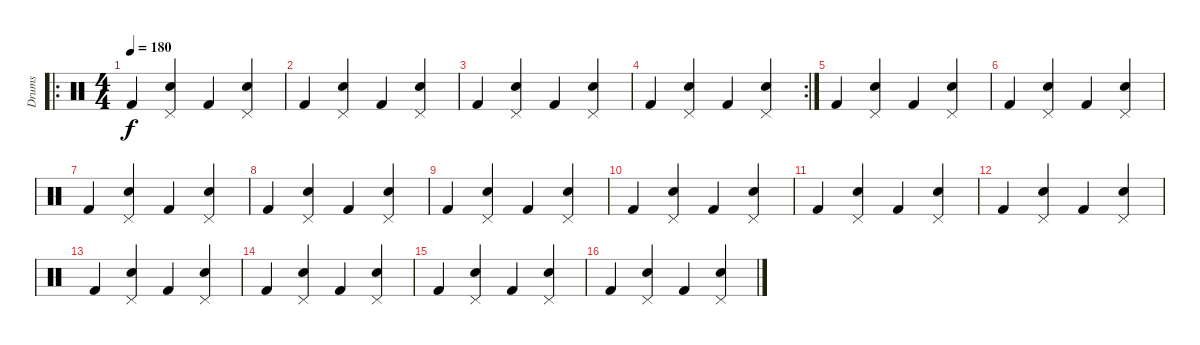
\track ("Drums" "Drums") {instrument percussion}
\staff {score}
\articulation defaults
\ro
\ts (4 4)
\tempo 180
\clef neutral
\ks c "Kick (hit) 2".4{dy f}
("Pedal Hi-Hat (hit)" "Electric Snare (hit)").4 "Kick (hit) 2".4 ("Pedal Hi-Hat (hit)" "Electric Snare (hit)").4 |
"Kick (hit) 2".4 ("Pedal Hi-Hat (hit)" "Electric Snare (hit)").4 "Kick (hit) 2".4 ("Pedal Hi-Hat (hit)" "Electric Snare (hit)").4 |
"Kick (hit) 2".4 ("Pedal Hi-Hat (hit)" "Electric Snare (hit)").4 "Kick (hit) 2".4 ("Pedal Hi-Hat (hit)" "Electric Snare (hit)").4 |
\rc 2 "Kick (hit) 2".4
("Pedal Hi-Hat (hit)" "Electric Snare (hit)").4 "Kick (hit) 2".4 ("Pedal Hi-Hat (hit)" "Electric Snare (hit)").4 |
"Kick (hit) 2".4 ("Pedal Hi-Hat (hit)" "Electric Snare (hit)").4 "Kick (hit) 2".4 ("Pedal Hi-Hat (hit)" "Electric Snare (hit)").4 |
"Kick (hit) 2".4 ("Pedal Hi-Hat (hit)" "Electric Snare (hit)").4 "Kick (hit) 2".4 ("Pedal Hi-Hat (hit)" "Electric Snare (hit)").4 |
"Kick (hit) 2".4 ("Pedal Hi-Hat (hit)" "Electric Snare (hit)").4 "Kick (hit) 2".4 ("Pedal Hi-Hat (hit)" "Electric Snare (hit)").4 |
"Kick (hit) 2".4 ("Pedal Hi-Hat (hit)" "Electric Snare (hit)").4 "Kick (hit) 2".4 ("Pedal Hi-Hat (hit)" "Electric Snare (hit)").4 |
"Kick (hit) 2".4 ("Pedal Hi-Hat (hit)" "Electric Snare (hit)").4 "Kick (hit) 2".4 ("Pedal Hi-Hat (hit)" "Electric Snare (hit)").4 |
"Kick (hit) 2".4 ("Pedal Hi-Hat (hit)" "Electric Snare (hit)").4 "Kick (hit) 2".4 ("Pedal Hi-Hat (hit)" "Electric Snare (hit)").4 |
"Kick (hit) 2".4 ("Pedal Hi-Hat (hit)" "Electric Snare (hit)").4 "Kick (hit) 2".4 ("Pedal Hi-Hat (hit)" "Electric Snare (hit)").4 |
"Kick (hit) 2".4 ("Pedal Hi-Hat (hit)" "Electric Snare (hit)").4 "Kick (hit) 2".4 ("Pedal Hi-Hat (hit)" "Electric Snare (hit)").4 |
"Kick (hit) 2".4 ("Pedal Hi-Hat (hit)" "Electric Snare (hit)").4 "Kick (hit) 2".4 ("Pedal Hi-Hat (hit)" "Electric Snare (hit)").4 |
"Kick (hit) 2".4 ("Pedal Hi-Hat (hit)" "Electric Snare (hit)").4 "Kick (hit) 2".4 ("Pedal Hi-Hat (hit)" "Electric Snare (hit)").4 |
"Kick (hit) 2".4 ("Pedal Hi-Hat (hit)" "Electric Snare (hit)").4 "Kick (hit) 2".4 ("Pedal Hi-Hat (hit)" "Electric Snare (hit)").4 |
"Kick (hit) 2".4 ("Pedal Hi-Hat (hit)" "Electric Snare (hit)").4 "Kick (hit) 2".4 ("Pedal Hi-Hat (hit)" "Electric Snare (hit)").4
